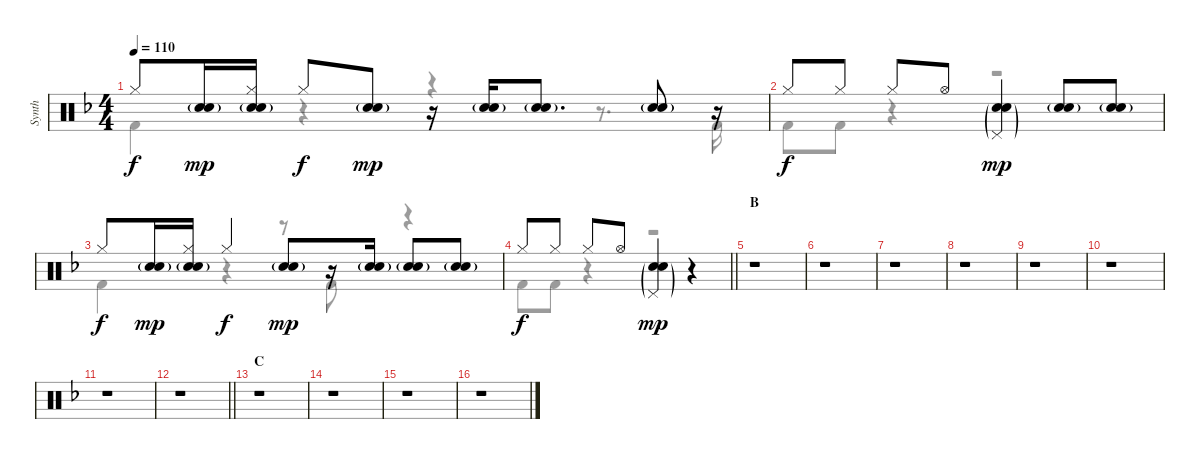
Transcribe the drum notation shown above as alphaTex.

\track ("Synth" "Synth") {instrument percussion}
\staff {score}
\articulation defaults
\voice
\ts (4 4)
\tempo 110
\clef neutral
\ks dminor "Hi-Hat (closed)".8{dy f}
("Electric Snare (hit)"{g} "Snare (hit) 2").16{dy mp} ("Hi-Hat (closed)" "Electric Snare (hit)"{g} "Snare (hit) 2").16 "Hi-Hat (closed)".8{dy f} ("Electric Snare (hit)"{g} "Snare (hit) 2").8{dy mp} r.16 ("Electric Snare (hit)"{g} "Snare (hit) 2").16 ("Electric Snare (hit)"{g} "Snare (hit) 2").8{d} ("Electric Snare (hit)"{g} "Snare (hit) 2").8 r.16 |
"Hi-Hat (closed)".8{dy f} "Hi-Hat (closed)".8 "Hi-Hat (closed)".8 "Hi-Hat (open)".8 ("Pedal Hi-Hat (hit)"{g} "Snare (hit) 2" "Electric Snare (hit)"{g}).4{dy mp} ("Snare (hit) 2" "Electric Snare (hit)"{g}).8 ("Snare (hit) 2" "Electric Snare (hit)"{g}).8 |
"Hi-Hat (closed)".8{dy f} ("Snare (hit) 2" "Electric Snare (hit)"{g}).16{dy mp} ("Hi-Hat (closed)" "Snare (hit) 2" "Electric Snare (hit)"{g}).16 "Hi-Hat (closed)".4{dy f} ("Snare (hit) 2" "Electric Snare (hit)"{g}).8{dy mp} r.16 ("Snare (hit) 2" "Electric Snare (hit)"{g}).16 ("Snare (hit) 2" "Electric Snare (hit)"{g}).8 ("Snare (hit) 2" "Electric Snare (hit)"{g}).8 |
\barLineRight lightlight "Hi-Hat (closed)".8{dy f} "Hi-Hat (closed)".8 "Hi-Hat (closed)".8 "Hi-Hat (open)".8
("Pedal Hi-Hat (hit)"{g} "Snare (hit) 2" "Electric Snare (hit)"{g}).4{dy mp} r.4 |
\section ("" "B")
r.1 |
r.1 |
r.1 |
r.1 |
r.1 |
r.1 |
r.1 |
\barLineRight lightlight
r.1 |
\section ("" "C")
r.1 |
r.1 |
r.1 |
r.1
\voice
\clef neutral
\ottava regular
\simile none
\ks dminor "Kick (hit) 2".4{dy f}
r.4 r.4 r.8{d} "Kick (hit) 2".16 |
"Kick (hit) 2".8 "Kick (hit) 2".8 r.4 r.2 |
"Kick (hit) 2".4 r.4 r.8 "Kick (hit) 2".8 r.4 |
\barLineRight lightlight "Kick (hit) 2".8 "Kick (hit) 2".8
r.4 r.2 |
|
|
|
|
|
|
|
\barLineRight lightlight
|
|
|
|
